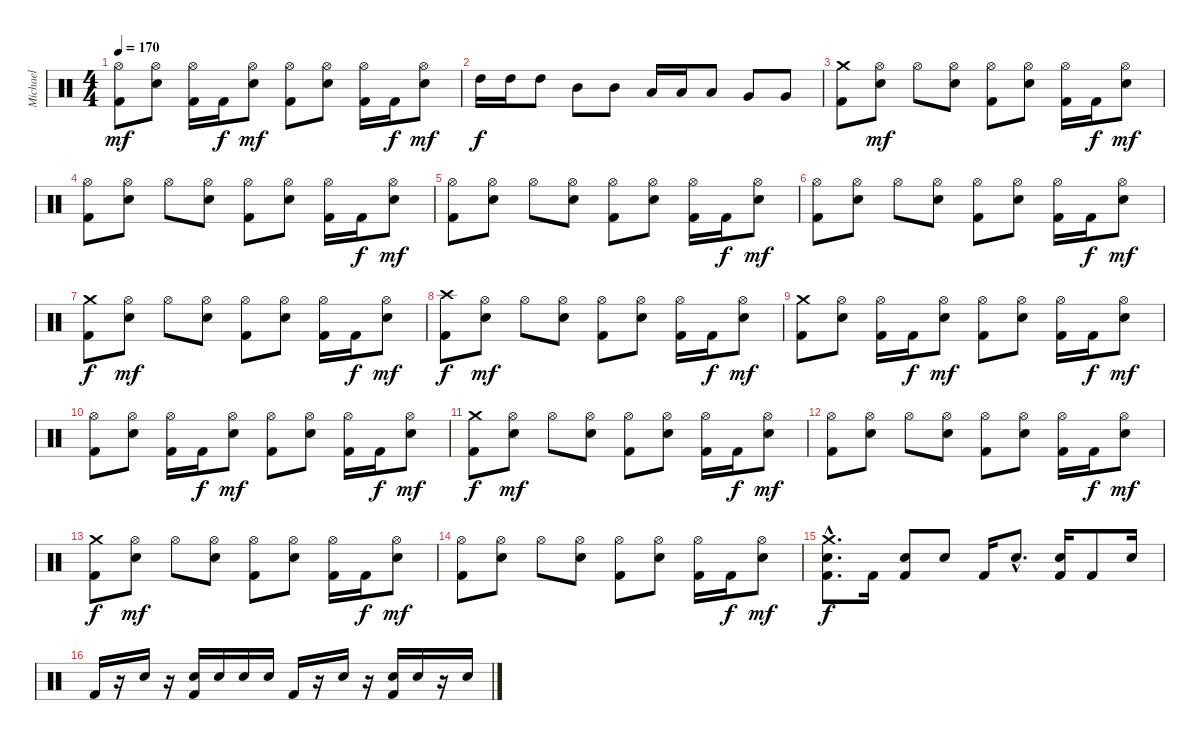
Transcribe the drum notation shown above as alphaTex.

\track ("Michael" "Michael") {instrument percussion}
\staff {score}
\articulation defaults
\ts (4 4)
\tempo 170
\clef neutral
\ks c
("Hi-Hat (open)" "Kick (hit) 2").8{dy mf} ("Hi-Hat (open)" "Electric Snare (hit)").8 ("Hi-Hat (open)" "Kick (hit) 2").16 "Kick (hit) 2".16{dy f} ("Hi-Hat (open)" "Electric Snare (hit)").8{dy mf} ("Hi-Hat (open)" "Kick (hit) 2").8 ("Hi-Hat (open)" "Electric Snare (hit)").8 ("Hi-Hat (open)" "Kick (hit) 2").16 "Kick (hit) 2".16{dy f} ("Hi-Hat (open)" "Electric Snare (hit)").8{dy mf} |
"High Tom (hit)".16{dy f} "High Tom (hit)".16 "High Tom (hit)".8 "Mid Tom (hit)".8 "Mid Tom (hit)".8 "Low Tom (hit)".16 "Low Tom (hit)".16 "Low Tom (hit)".8 "Very Low Tom (hit)".8 "Very Low Tom (hit)".8 |
("Crash medium (hit)" "Kick (hit) 2").8 ("Hi-Hat (open)" "Electric Snare (hit)").8{dy mf} "Hi-Hat (open)".8 ("Hi-Hat (open)" "Electric Snare (hit)").8 ("Hi-Hat (open)" "Kick (hit) 2").8 ("Hi-Hat (open)" "Electric Snare (hit)").8 ("Hi-Hat (open)" "Kick (hit) 2").16 "Kick (hit) 2".16{dy f} ("Hi-Hat (open)" "Electric Snare (hit)").8{dy mf} |
("Hi-Hat (open)" "Kick (hit) 2").8 ("Hi-Hat (open)" "Electric Snare (hit)").8 "Hi-Hat (open)".8 ("Hi-Hat (open)" "Electric Snare (hit)").8 ("Hi-Hat (open)" "Kick (hit) 2").8 ("Hi-Hat (open)" "Electric Snare (hit)").8 ("Hi-Hat (open)" "Kick (hit) 2").16 "Kick (hit) 2".16{dy f} ("Hi-Hat (open)" "Electric Snare (hit)").8{dy mf} |
("Hi-Hat (open)" "Kick (hit) 2").8 ("Hi-Hat (open)" "Electric Snare (hit)").8 "Hi-Hat (open)".8 ("Hi-Hat (open)" "Electric Snare (hit)").8 ("Hi-Hat (open)" "Kick (hit) 2").8 ("Hi-Hat (open)" "Electric Snare (hit)").8 ("Hi-Hat (open)" "Kick (hit) 2").16 "Kick (hit) 2".16{dy f} ("Hi-Hat (open)" "Electric Snare (hit)").8{dy mf} |
("Hi-Hat (open)" "Kick (hit) 2").8 ("Hi-Hat (open)" "Electric Snare (hit)").8 "Hi-Hat (open)".8 ("Hi-Hat (open)" "Electric Snare (hit)").8 ("Hi-Hat (open)" "Kick (hit) 2").8 ("Hi-Hat (open)" "Electric Snare (hit)").8 ("Hi-Hat (open)" "Kick (hit) 2").16 "Kick (hit) 2".16{dy f} ("Hi-Hat (open)" "Electric Snare (hit)").8{dy mf} |
("Crash medium (hit)" "Kick (hit) 2").8{dy f} ("Hi-Hat (open)" "Electric Snare (hit)").8{dy mf} "Hi-Hat (open)".8 ("Hi-Hat (open)" "Electric Snare (hit)").8 ("Hi-Hat (open)" "Kick (hit) 2").8 ("Hi-Hat (open)" "Electric Snare (hit)").8 ("Hi-Hat (open)" "Kick (hit) 2").16 "Kick (hit) 2".16{dy f} ("Hi-Hat (open)" "Electric Snare (hit)").8{dy mf} |
("Crash high (hit)" "Kick (hit) 2").8{dy f} ("Hi-Hat (open)" "Electric Snare (hit)").8{dy mf} "Hi-Hat (open)".8 ("Hi-Hat (open)" "Electric Snare (hit)").8 ("Hi-Hat (open)" "Kick (hit) 2").8 ("Hi-Hat (open)" "Electric Snare (hit)").8 ("Hi-Hat (open)" "Kick (hit) 2").16 "Kick (hit) 2".16{dy f} ("Hi-Hat (open)" "Electric Snare (hit)").8{dy mf} |
("Crash medium (hit)" "Kick (hit) 2").8 ("Hi-Hat (open)" "Electric Snare (hit)").8 ("Hi-Hat (open)" "Kick (hit) 2").16 "Kick (hit) 2".16{dy f} ("Hi-Hat (open)" "Electric Snare (hit)").8{dy mf} ("Hi-Hat (open)" "Kick (hit) 2").8 ("Hi-Hat (open)" "Electric Snare (hit)").8 ("Hi-Hat (open)" "Kick (hit) 2").16 "Kick (hit) 2".16{dy f} ("Hi-Hat (open)" "Electric Snare (hit)").8{dy mf} |
("Hi-Hat (open)" "Kick (hit) 2").8 ("Hi-Hat (open)" "Electric Snare (hit)").8 ("Hi-Hat (open)" "Kick (hit) 2").16 "Kick (hit) 2".16{dy f} ("Hi-Hat (open)" "Electric Snare (hit)").8{dy mf} ("Hi-Hat (open)" "Kick (hit) 2").8 ("Hi-Hat (open)" "Electric Snare (hit)").8 ("Hi-Hat (open)" "Kick (hit) 2").16 "Kick (hit) 2".16{dy f} ("Hi-Hat (open)" "Electric Snare (hit)").8{dy mf} |
("Crash medium (hit)" "Kick (hit) 2").8{dy f} ("Hi-Hat (open)" "Electric Snare (hit)").8{dy mf} "Hi-Hat (open)".8 ("Hi-Hat (open)" "Electric Snare (hit)").8 ("Hi-Hat (open)" "Kick (hit) 2").8 ("Hi-Hat (open)" "Electric Snare (hit)").8 ("Hi-Hat (open)" "Kick (hit) 2").16 "Kick (hit) 2".16{dy f} ("Hi-Hat (open)" "Electric Snare (hit)").8{dy mf} |
("Hi-Hat (open)" "Kick (hit) 2").8 ("Hi-Hat (open)" "Electric Snare (hit)").8 "Hi-Hat (open)".8 ("Hi-Hat (open)" "Electric Snare (hit)").8 ("Hi-Hat (open)" "Kick (hit) 2").8 ("Hi-Hat (open)" "Electric Snare (hit)").8 ("Hi-Hat (open)" "Kick (hit) 2").16 "Kick (hit) 2".16{dy f} ("Hi-Hat (open)" "Electric Snare (hit)").8{dy mf} |
("Crash medium (hit)" "Kick (hit) 2").8{dy f} ("Hi-Hat (open)" "Electric Snare (hit)").8{dy mf} "Hi-Hat (open)".8 ("Hi-Hat (open)" "Electric Snare (hit)").8 ("Hi-Hat (open)" "Kick (hit) 2").8 ("Hi-Hat (open)" "Electric Snare (hit)").8 ("Hi-Hat (open)" "Kick (hit) 2").16 "Kick (hit) 2".16{dy f} ("Hi-Hat (open)" "Electric Snare (hit)").8{dy mf} |
("Hi-Hat (open)" "Kick (hit) 2").8 ("Hi-Hat (open)" "Electric Snare (hit)").8 "Hi-Hat (open)".8 ("Hi-Hat (open)" "Electric Snare (hit)").8 ("Hi-Hat (open)" "Kick (hit) 2").8 ("Hi-Hat (open)" "Electric Snare (hit)").8 ("Hi-Hat (open)" "Kick (hit) 2").16 "Kick (hit) 2".16{dy f} ("Hi-Hat (open)" "Electric Snare (hit)").8{dy mf} |
("Crash medium (hit)"{hac} "Electric Snare (hit)"{hac} "Kick (hit) 2"{hac}).8{d dy f} "Kick (hit) 2".16 ("Electric Snare (hit)" "Kick (hit) 2").8 "Electric Snare (hit)".8 "Kick (hit) 2".16 "Electric Snare (hit)"{hac}.8{d} ("Electric Snare (hit)" "Kick (hit) 2").16 "Kick (hit) 2".8 "Electric Snare (hit)".16 |
"Kick (hit) 2".16 r.16 "Electric Snare (hit)".16 r.16 ("Electric Snare (hit)" "Kick (hit) 2").16 "Electric Snare (hit)".16 "Electric Snare (hit)".16 "Electric Snare (hit)".16 "Kick (hit) 2".16 r.16 "Electric Snare (hit)".16 r.16 ("Electric Snare (hit)" "Kick (hit) 2").16 "Electric Snare (hit)".16 r.16 "Electric Snare (hit)".16
